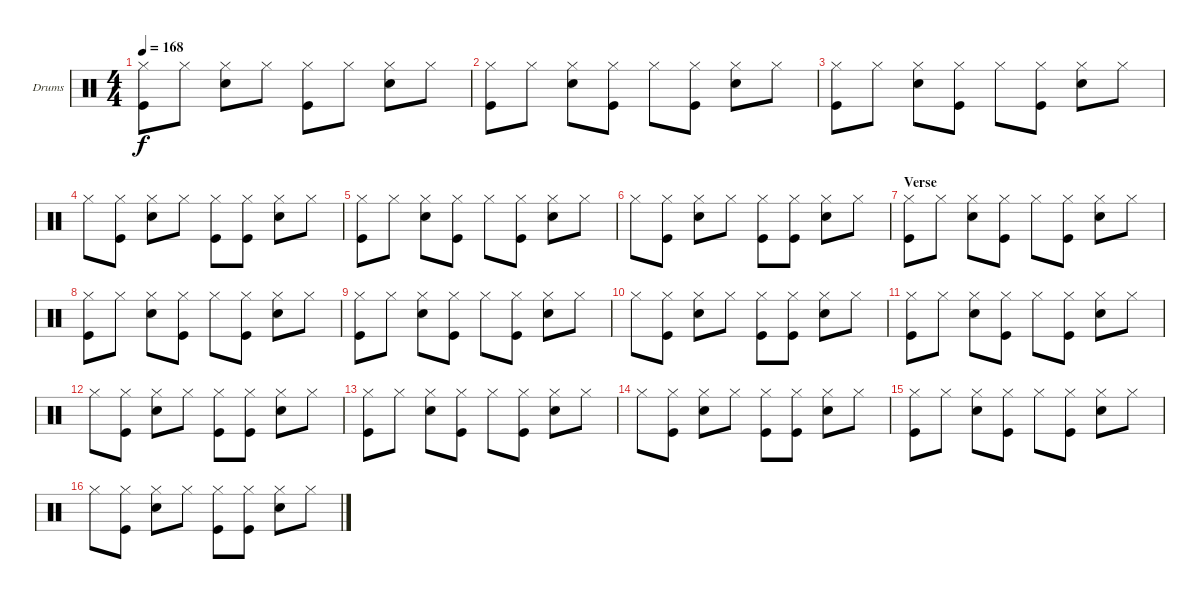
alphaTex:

\bracketExtendMode groupsimilarinstruments
\firstSystemTrackNameOrientation horizontal
\otherSystemsTrackNameOrientation horizontal
\track ("Drumkit" "Drums") {instrument percussion}
\staff {score}
\articulation defaults
\ts (4 4)
\tempo 168
\clef neutral
\ks c
("Kick (hit)" "Hi-Hat (closed)").8{dy f} "Hi-Hat (closed)".8 ("Snare (hit) 2" "Hi-Hat (closed)").8 "Hi-Hat (closed)".8 ("Hi-Hat (closed)" "Kick (hit)").8 "Hi-Hat (closed)".8 ("Snare (hit) 2" "Hi-Hat (closed)").8 "Hi-Hat (closed)".8 |
("Kick (hit)" "Hi-Hat (closed)").8 "Hi-Hat (closed)".8 ("Snare (hit) 2" "Hi-Hat (closed)").8 ("Kick (hit)" "Hi-Hat (closed)").8 "Hi-Hat (closed)".8 ("Kick (hit)" "Hi-Hat (closed)").8 ("Snare (hit) 2" "Hi-Hat (closed)").8 "Hi-Hat (closed)".8 |
("Kick (hit)" "Hi-Hat (closed)").8 "Hi-Hat (closed)".8 ("Snare (hit) 2" "Hi-Hat (closed)").8 ("Kick (hit)" "Hi-Hat (closed)").8 "Hi-Hat (closed)".8 ("Kick (hit)" "Hi-Hat (closed)").8 ("Snare (hit) 2" "Hi-Hat (closed)").8 "Hi-Hat (closed)".8 |
"Hi-Hat (closed)".8 ("Hi-Hat (closed)" "Kick (hit)").8 ("Snare (hit) 2" "Hi-Hat (closed)").8 "Hi-Hat (closed)".8 ("Hi-Hat (closed)" "Kick (hit)").8 ("Kick (hit)" "Hi-Hat (closed)").8 ("Snare (hit) 2" "Hi-Hat (closed)").8 "Hi-Hat (closed)".8 |
("Kick (hit)" "Hi-Hat (closed)").8 "Hi-Hat (closed)".8 ("Snare (hit) 2" "Hi-Hat (closed)").8 ("Kick (hit)" "Hi-Hat (closed)").8 "Hi-Hat (closed)".8 ("Kick (hit)" "Hi-Hat (closed)").8 ("Snare (hit) 2" "Hi-Hat (closed)").8 "Hi-Hat (closed)".8 |
"Hi-Hat (closed)".8 ("Hi-Hat (closed)" "Kick (hit)").8 ("Snare (hit) 2" "Hi-Hat (closed)").8 "Hi-Hat (closed)".8 ("Hi-Hat (closed)" "Kick (hit)").8 ("Kick (hit)" "Hi-Hat (closed)").8 ("Snare (hit) 2" "Hi-Hat (closed)").8 "Hi-Hat (closed)".8 |
\section ("" "Verse")
("Kick (hit)" "Hi-Hat (closed)").8 "Hi-Hat (closed)".8 ("Snare (hit) 2" "Hi-Hat (closed)").8 ("Kick (hit)" "Hi-Hat (closed)").8 "Hi-Hat (closed)".8 ("Kick (hit)" "Hi-Hat (closed)").8 ("Snare (hit) 2" "Hi-Hat (closed)").8 "Hi-Hat (closed)".8 |
("Kick (hit)" "Hi-Hat (closed)").8 "Hi-Hat (closed)".8 ("Snare (hit) 2" "Hi-Hat (closed)").8 ("Kick (hit)" "Hi-Hat (closed)").8 "Hi-Hat (closed)".8 ("Kick (hit)" "Hi-Hat (closed)").8 ("Snare (hit) 2" "Hi-Hat (closed)").8 "Hi-Hat (closed)".8 |
("Kick (hit)" "Hi-Hat (closed)").8 "Hi-Hat (closed)".8 ("Snare (hit) 2" "Hi-Hat (closed)").8 ("Kick (hit)" "Hi-Hat (closed)").8 "Hi-Hat (closed)".8 ("Kick (hit)" "Hi-Hat (closed)").8 ("Snare (hit) 2" "Hi-Hat (closed)").8 "Hi-Hat (closed)".8 |
"Hi-Hat (closed)".8 ("Hi-Hat (closed)" "Kick (hit)").8 ("Snare (hit) 2" "Hi-Hat (closed)").8 "Hi-Hat (closed)".8 ("Hi-Hat (closed)" "Kick (hit)").8 ("Kick (hit)" "Hi-Hat (closed)").8 ("Snare (hit) 2" "Hi-Hat (closed)").8 "Hi-Hat (closed)".8 |
("Kick (hit)" "Hi-Hat (closed)").8 "Hi-Hat (closed)".8 ("Snare (hit) 2" "Hi-Hat (closed)").8 ("Kick (hit)" "Hi-Hat (closed)").8 "Hi-Hat (closed)".8 ("Kick (hit)" "Hi-Hat (closed)").8 ("Snare (hit) 2" "Hi-Hat (closed)").8 "Hi-Hat (closed)".8 |
"Hi-Hat (closed)".8 ("Hi-Hat (closed)" "Kick (hit)").8 ("Snare (hit) 2" "Hi-Hat (closed)").8 "Hi-Hat (closed)".8 ("Hi-Hat (closed)" "Kick (hit)").8 ("Kick (hit)" "Hi-Hat (closed)").8 ("Snare (hit) 2" "Hi-Hat (closed)").8 "Hi-Hat (closed)".8 |
("Kick (hit)" "Hi-Hat (closed)").8 "Hi-Hat (closed)".8 ("Snare (hit) 2" "Hi-Hat (closed)").8 ("Kick (hit)" "Hi-Hat (closed)").8 "Hi-Hat (closed)".8 ("Kick (hit)" "Hi-Hat (closed)").8 ("Snare (hit) 2" "Hi-Hat (closed)").8 "Hi-Hat (closed)".8 |
"Hi-Hat (closed)".8 ("Hi-Hat (closed)" "Kick (hit)").8 ("Snare (hit) 2" "Hi-Hat (closed)").8 "Hi-Hat (closed)".8 ("Hi-Hat (closed)" "Kick (hit)").8 ("Kick (hit)" "Hi-Hat (closed)").8 ("Snare (hit) 2" "Hi-Hat (closed)").8 "Hi-Hat (closed)".8 |
("Kick (hit)" "Hi-Hat (closed)").8 "Hi-Hat (closed)".8 ("Snare (hit) 2" "Hi-Hat (closed)").8 ("Kick (hit)" "Hi-Hat (closed)").8 "Hi-Hat (closed)".8 ("Kick (hit)" "Hi-Hat (closed)").8 ("Snare (hit) 2" "Hi-Hat (closed)").8 "Hi-Hat (closed)".8 |
"Hi-Hat (closed)".8 ("Hi-Hat (closed)" "Kick (hit)").8 ("Snare (hit) 2" "Hi-Hat (closed)").8 "Hi-Hat (closed)".8 ("Hi-Hat (closed)" "Kick (hit)").8 ("Kick (hit)" "Hi-Hat (closed)").8 ("Snare (hit) 2" "Hi-Hat (closed)").8 "Hi-Hat (closed)".8
